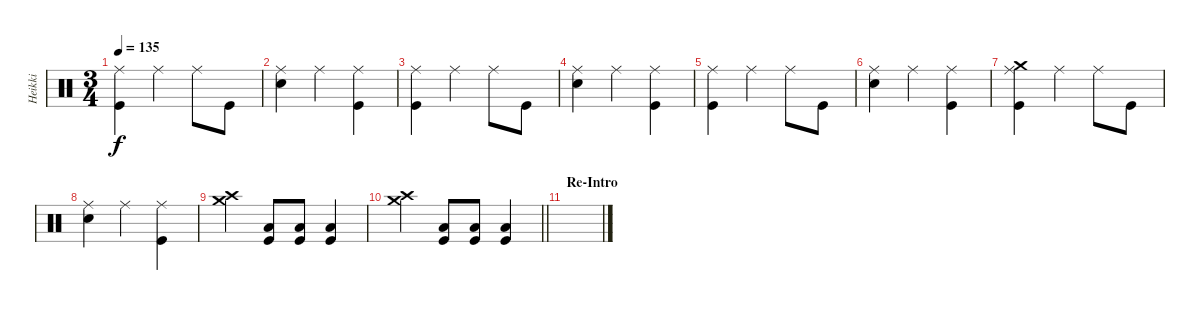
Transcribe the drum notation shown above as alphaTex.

\track ("Heikki" "Heikki") {instrument percussion}
\staff {score}
\articulation defaults
\ts (3 4)
\tempo 135
\clef neutral
\ks c
("Ride (middle)" "Kick (hit)").4{dy f} "Ride (middle)".4 "Ride (middle)".8 "Kick (hit)".8 |
("Ride (middle)" "Snare (hit) 2").4 "Ride (middle)".4 ("Ride (middle)" "Kick (hit)").4 |
("Ride (middle)" "Kick (hit)").4 "Ride (middle)".4 "Ride (middle)".8 "Kick (hit)".8 |
("Ride (middle)" "Snare (hit) 2").4 "Ride (middle)".4 ("Ride (middle)" "Kick (hit)").4 |
("Ride (middle)" "Kick (hit)").4 "Ride (middle)".4 "Ride (middle)".8 "Kick (hit)".8 |
("Ride (middle)" "Snare (hit) 2").4 "Ride (middle)".4 ("Ride (middle)" "Kick (hit)").4 |
("Ride (middle)" "Crash medium (hit)" "Kick (hit)").4 "Ride (middle)".4 "Ride (middle)".8 "Kick (hit)".8 |
("Ride (middle)" "Snare (hit) 2").4 "Ride (middle)".4 ("Ride (middle)" "Kick (hit)").4 |
("Crash medium (hit)" "Crash high (hit)").4 ("Low Floor Tom (hit)" "Kick (hit)").8 ("Low Floor Tom (hit)" "Kick (hit)").8 ("Low Floor Tom (hit)" "Kick (hit)").4 |
\barLineRight lightlight
("Crash medium (hit)" "Crash high (hit)").4 ("Low Floor Tom (hit)" "Kick (hit)").8 ("Low Floor Tom (hit)" "Kick (hit)").8 ("Low Floor Tom (hit)" "Kick (hit)").4 |
\section ("" "Re-Intro")
